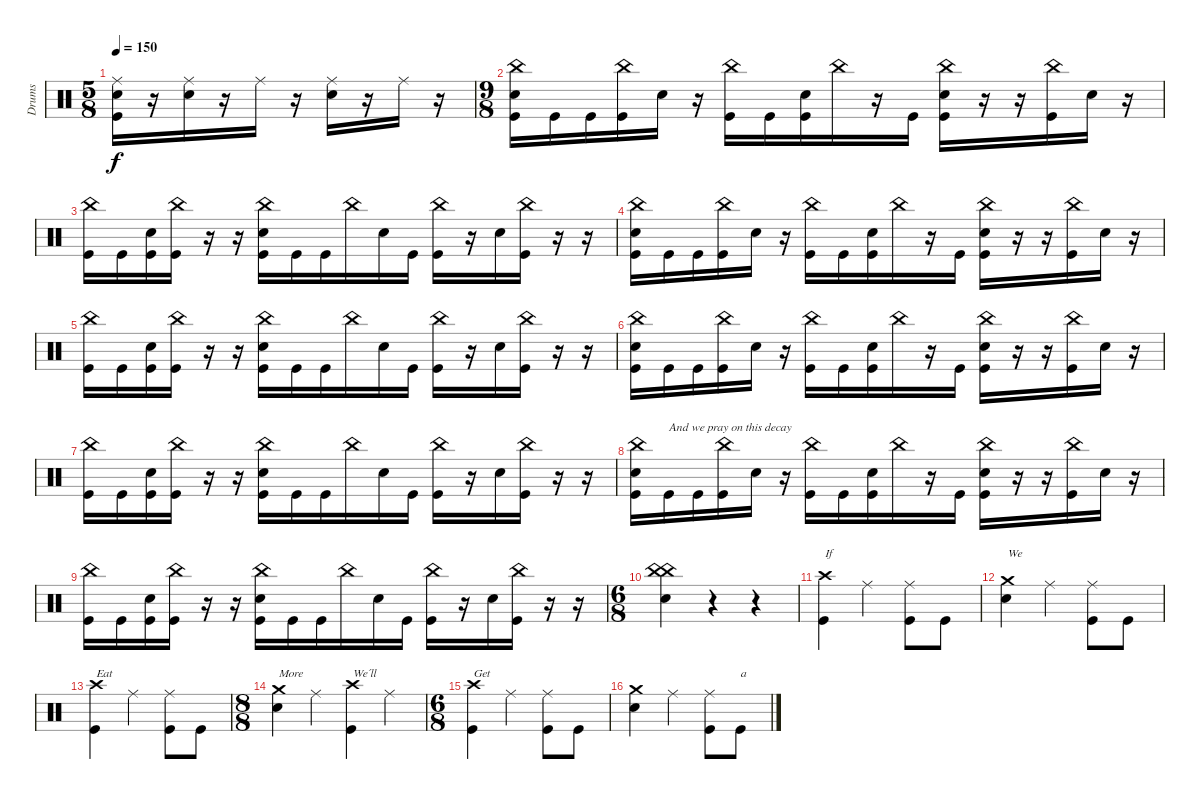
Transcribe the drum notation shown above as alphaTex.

\track ("Drums" "Drums") {instrument percussion}
\staff {score}
\articulation defaults
\ts (5 8)
\tempo 150
\clef neutral
\ks c
("Snare (hit)" "Ride (middle)" "Kick (hit)").16{dy f} r.16 ("Ride (middle)" "Snare (hit) 2").16 r.16 "Ride (middle)".16 r.16 ("Ride (middle)" "Snare (hit) 2").16 r.16 "Ride (middle)".16 r.16 |
\ts (9 8)
("China (hit)" "Snare (hit) 2" "Kick (hit)").16 "Kick (hit)".16 "Kick (hit)".16 ("China (hit)" "Kick (hit)").16 "Snare (hit) 2".16 r.16 ("China (hit)" "Kick (hit)").16 "Kick (hit)".16 ("Snare (hit) 2" "Kick (hit)").16 "China (hit)".16 r.16 "Kick (hit)".16 ("China (hit)" "Snare (hit) 2" "Kick (hit)").16 r.16 r.16 ("China (hit)" "Kick (hit)").16 "Snare (hit) 2".16 r.16 |
("China (hit)" "Kick (hit)").16 "Kick (hit)".16 ("Snare (hit) 2" "Kick (hit)").16 ("China (hit)" "Kick (hit)").16 r.16 r.16 ("China (hit)" "Snare (hit) 2" "Kick (hit)").16 "Kick (hit)".16 "Kick (hit)".16 "China (hit)".16 "Snare (hit) 2".16 "Kick (hit)".16 ("China (hit)" "Kick (hit)").16 r.16 "Snare (hit) 2".16 ("China (hit)" "Kick (hit)").16 r.16 r.16 |
("China (hit)" "Snare (hit) 2" "Kick (hit)").16 "Kick (hit)".16 "Kick (hit)".16 ("China (hit)" "Kick (hit)").16 "Snare (hit) 2".16 r.16 ("China (hit)" "Kick (hit)").16 "Kick (hit)".16 ("Snare (hit) 2" "Kick (hit)").16 "China (hit)".16 r.16 "Kick (hit)".16 ("China (hit)" "Snare (hit) 2" "Kick (hit)").16 r.16 r.16 ("China (hit)" "Kick (hit)").16 "Snare (hit) 2".16 r.16 |
("China (hit)" "Kick (hit)").16 "Kick (hit)".16 ("Snare (hit) 2" "Kick (hit)").16 ("China (hit)" "Kick (hit)").16 r.16 r.16 ("China (hit)" "Snare (hit) 2" "Kick (hit)").16 "Kick (hit)".16 "Kick (hit)".16 "China (hit)".16 "Snare (hit) 2".16 "Kick (hit)".16 ("China (hit)" "Kick (hit)").16 r.16 "Snare (hit) 2".16 ("China (hit)" "Kick (hit)").16 r.16 r.16 |
("China (hit)" "Snare (hit) 2" "Kick (hit)").16 "Kick (hit)".16 "Kick (hit)".16 ("China (hit)" "Kick (hit)").16 "Snare (hit) 2".16 r.16 ("China (hit)" "Kick (hit)").16 "Kick (hit)".16 ("Snare (hit) 2" "Kick (hit)").16 "China (hit)".16 r.16 "Kick (hit)".16 ("China (hit)" "Snare (hit) 2" "Kick (hit)").16 r.16 r.16 ("China (hit)" "Kick (hit)").16 "Snare (hit) 2".16 r.16 |
("China (hit)" "Kick (hit)").16 "Kick (hit)".16 ("Snare (hit) 2" "Kick (hit)").16 ("China (hit)" "Kick (hit)").16 r.16 r.16 ("China (hit)" "Snare (hit) 2" "Kick (hit)").16 "Kick (hit)".16 "Kick (hit)".16 "China (hit)".16 "Snare (hit) 2".16 "Kick (hit)".16 ("China (hit)" "Kick (hit)").16 r.16 "Snare (hit) 2".16 ("China (hit)" "Kick (hit)").16 r.16 r.16 |
("China (hit)" "Snare (hit) 2" "Kick (hit)").16 "Kick (hit)".16{txt "And we pray on this decay"} "Kick (hit)".16 ("China (hit)" "Kick (hit)").16 "Snare (hit) 2".16 r.16 ("China (hit)" "Kick (hit)").16 "Kick (hit)".16 ("Snare (hit) 2" "Kick (hit)").16 "China (hit)".16 r.16 "Kick (hit)".16 ("China (hit)" "Snare (hit) 2" "Kick (hit)").16 r.16 r.16 ("China (hit)" "Kick (hit)").16 "Snare (hit) 2".16 r.16 |
("China (hit)" "Kick (hit)").16 "Kick (hit)".16 ("Snare (hit) 2" "Kick (hit)").16 ("China (hit)" "Kick (hit)").16 r.16 r.16 ("China (hit)" "Snare (hit) 2" "Kick (hit)").16 "Kick (hit)".16 "Kick (hit)".16 "China (hit)".16 "Snare (hit) 2".16 "Kick (hit)".16 ("China (hit)" "Kick (hit)").16 r.16 "Snare (hit) 2".16 ("China (hit)" "Kick (hit)").16 r.16 r.16 |
\ts (6 8)
("China (hit)" "Snare (hit) 2" "China (hit)").4 r.4 r.4 |
("Crash high (hit)" "Kick (hit)").4{txt "If"} "Ride (middle)".4 ("Ride (middle)" "Kick (hit)").8 "Kick (hit)".8 |
("Crash medium (hit)" "Snare (hit) 2").4{txt "We"} "Ride (middle)".4 ("Ride (middle)" "Kick (hit)").8 "Kick (hit)".8 |
("Crash high (hit)" "Kick (hit)").4{txt "Eat"} "Ride (middle)".4 ("Ride (middle)" "Kick (hit)").8 "Kick (hit)".8 |
\ts (8 8)
("Crash medium (hit)" "Snare (hit) 2").4{txt "More"} "Ride (middle)".4 ("Crash high (hit)" "Kick (hit)").4{txt "We´ll"} "Ride (middle)".4 |
\ts (6 8)
("Crash high (hit)" "Kick (hit)").4{txt "Get"} "Ride (middle)".4 ("Ride (middle)" "Kick (hit)").8 "Kick (hit)".8 |
("Crash medium (hit)" "Snare (hit) 2").4 "Ride (middle)".4 ("Ride (middle)" "Kick (hit)").8 "Kick (hit)".8{txt "a"}
